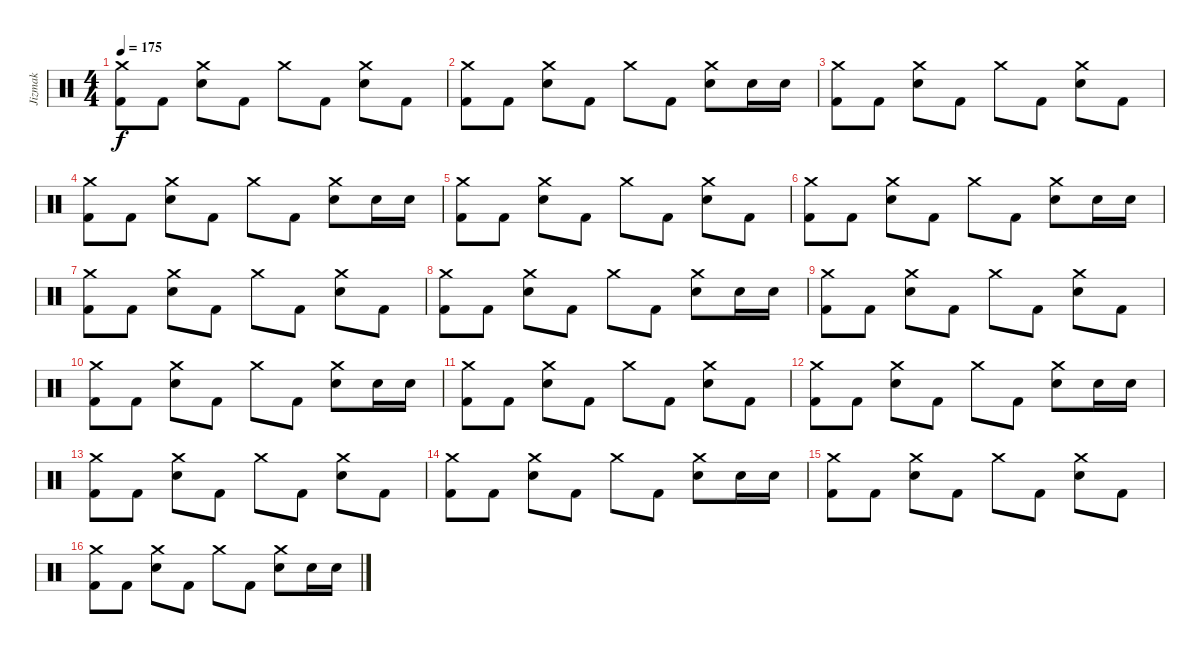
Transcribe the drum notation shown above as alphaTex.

\track ("Jizmak" "Jizmak") {instrument percussion}
\staff {score}
\articulation defaults
\ts (4 4)
\tempo 175
\clef neutral
\ks c
("Crash medium (hit)" "Kick (hit) 2").8{dy f} "Kick (hit) 2".8 ("Crash medium (hit)" "Snare (hit) 2").8 "Kick (hit) 2".8 "Crash medium (hit)".8 "Kick (hit) 2".8 ("Crash medium (hit)" "Snare (hit) 2").8 "Kick (hit) 2".8 |
("Crash medium (hit)" "Kick (hit) 2").8 "Kick (hit) 2".8 ("Crash medium (hit)" "Snare (hit) 2").8 "Kick (hit) 2".8 "Crash medium (hit)".8 "Kick (hit) 2".8 ("Crash medium (hit)" "Snare (hit) 2").8 "Snare (hit) 2".16 "Snare (hit) 2".16 |
("Crash medium (hit)" "Kick (hit) 2").8 "Kick (hit) 2".8 ("Crash medium (hit)" "Snare (hit) 2").8 "Kick (hit) 2".8 "Crash medium (hit)".8 "Kick (hit) 2".8 ("Crash medium (hit)" "Snare (hit) 2").8 "Kick (hit) 2".8 |
("Crash medium (hit)" "Kick (hit) 2").8 "Kick (hit) 2".8 ("Crash medium (hit)" "Snare (hit) 2").8 "Kick (hit) 2".8 "Crash medium (hit)".8 "Kick (hit) 2".8 ("Crash medium (hit)" "Snare (hit) 2").8 "Snare (hit) 2".16 "Snare (hit) 2".16 |
("Crash medium (hit)" "Kick (hit) 2").8 "Kick (hit) 2".8 ("Crash medium (hit)" "Snare (hit) 2").8 "Kick (hit) 2".8 "Crash medium (hit)".8 "Kick (hit) 2".8 ("Crash medium (hit)" "Snare (hit) 2").8 "Kick (hit) 2".8 |
("Crash medium (hit)" "Kick (hit) 2").8 "Kick (hit) 2".8 ("Crash medium (hit)" "Snare (hit) 2").8 "Kick (hit) 2".8 "Crash medium (hit)".8 "Kick (hit) 2".8 ("Crash medium (hit)" "Snare (hit) 2").8 "Snare (hit) 2".16 "Snare (hit) 2".16 |
("Crash medium (hit)" "Kick (hit) 2").8 "Kick (hit) 2".8 ("Crash medium (hit)" "Snare (hit) 2").8 "Kick (hit) 2".8 "Crash medium (hit)".8 "Kick (hit) 2".8 ("Crash medium (hit)" "Snare (hit) 2").8 "Kick (hit) 2".8 |
("Crash medium (hit)" "Kick (hit) 2").8 "Kick (hit) 2".8 ("Crash medium (hit)" "Snare (hit) 2").8 "Kick (hit) 2".8 "Crash medium (hit)".8 "Kick (hit) 2".8 ("Crash medium (hit)" "Snare (hit) 2").8 "Snare (hit) 2".16 "Snare (hit) 2".16 |
("Crash medium (hit)" "Kick (hit) 2").8 "Kick (hit) 2".8 ("Crash medium (hit)" "Snare (hit) 2").8 "Kick (hit) 2".8 "Crash medium (hit)".8 "Kick (hit) 2".8 ("Crash medium (hit)" "Snare (hit) 2").8 "Kick (hit) 2".8 |
("Crash medium (hit)" "Kick (hit) 2").8 "Kick (hit) 2".8 ("Crash medium (hit)" "Snare (hit) 2").8 "Kick (hit) 2".8 "Crash medium (hit)".8 "Kick (hit) 2".8 ("Crash medium (hit)" "Snare (hit) 2").8 "Snare (hit) 2".16 "Snare (hit) 2".16 |
("Crash medium (hit)" "Kick (hit) 2").8 "Kick (hit) 2".8 ("Crash medium (hit)" "Snare (hit) 2").8 "Kick (hit) 2".8 "Crash medium (hit)".8 "Kick (hit) 2".8 ("Crash medium (hit)" "Snare (hit) 2").8 "Kick (hit) 2".8 |
("Crash medium (hit)" "Kick (hit) 2").8 "Kick (hit) 2".8 ("Crash medium (hit)" "Snare (hit) 2").8 "Kick (hit) 2".8 "Crash medium (hit)".8 "Kick (hit) 2".8 ("Crash medium (hit)" "Snare (hit) 2").8 "Snare (hit) 2".16 "Snare (hit) 2".16 |
("Crash medium (hit)" "Kick (hit) 2").8 "Kick (hit) 2".8 ("Crash medium (hit)" "Snare (hit) 2").8 "Kick (hit) 2".8 "Crash medium (hit)".8 "Kick (hit) 2".8 ("Crash medium (hit)" "Snare (hit) 2").8 "Kick (hit) 2".8 |
("Crash medium (hit)" "Kick (hit) 2").8 "Kick (hit) 2".8 ("Crash medium (hit)" "Snare (hit) 2").8 "Kick (hit) 2".8 "Crash medium (hit)".8 "Kick (hit) 2".8 ("Crash medium (hit)" "Snare (hit) 2").8 "Snare (hit) 2".16 "Snare (hit) 2".16 |
("Crash medium (hit)" "Kick (hit) 2").8 "Kick (hit) 2".8 ("Crash medium (hit)" "Snare (hit) 2").8 "Kick (hit) 2".8 "Crash medium (hit)".8 "Kick (hit) 2".8 ("Crash medium (hit)" "Snare (hit) 2").8 "Kick (hit) 2".8 |
("Crash medium (hit)" "Kick (hit) 2").8 "Kick (hit) 2".8 ("Crash medium (hit)" "Snare (hit) 2").8 "Kick (hit) 2".8 "Crash medium (hit)".8 "Kick (hit) 2".8 ("Crash medium (hit)" "Snare (hit) 2").8 "Snare (hit) 2".16 "Snare (hit) 2".16
